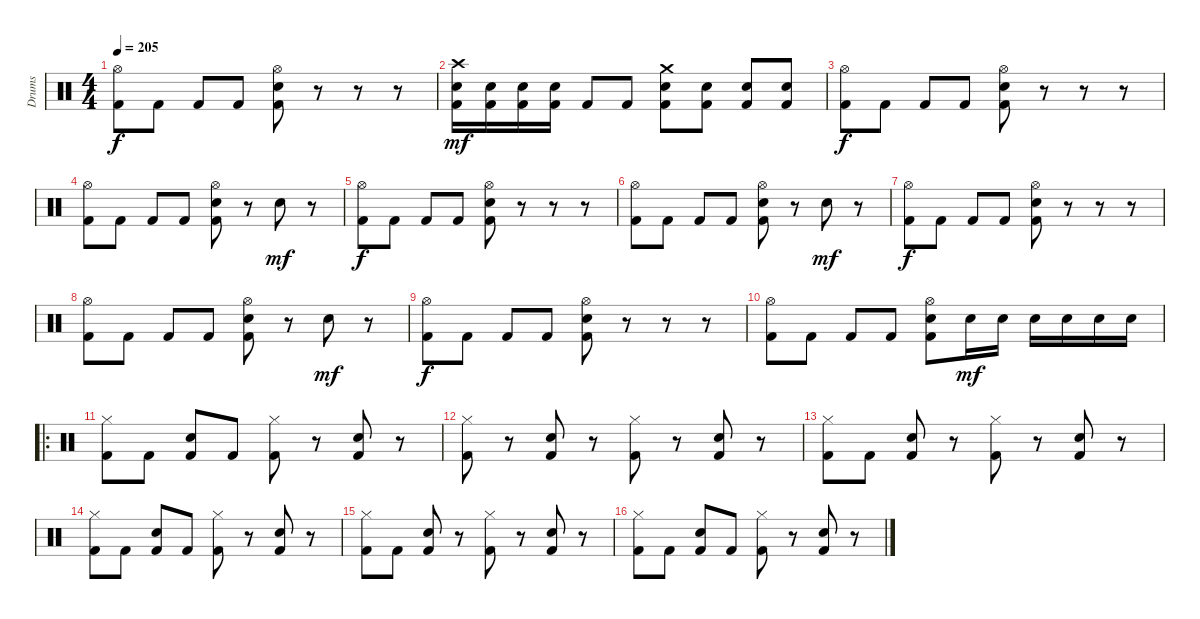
\track ("Drums" "Drums") {instrument percussion}
\staff {score}
\articulation defaults
\ts (4 4)
\tempo 205
\clef neutral
\ks c
("Hi-Hat (open)" "Kick (hit) 2").8{dy f} "Kick (hit) 2".8 "Kick (hit) 2".8 "Kick (hit) 2".8 ("Hi-Hat (open)" "Electric Snare (hit)" "Kick (hit) 2").8 r.8 r.8 r.8 |
("Crash high (hit)" "Electric Snare (hit)" "Kick (hit) 2").16{dy mf} ("Electric Snare (hit)" "Kick (hit) 2").16 ("Electric Snare (hit)" "Kick (hit) 2").16 ("Electric Snare (hit)" "Kick (hit) 2").16 "Kick (hit) 2".8 "Kick (hit) 2".8 ("Crash medium (hit)" "Electric Snare (hit)" "Kick (hit) 2").8 ("Electric Snare (hit)" "Kick (hit) 2").8 ("Electric Snare (hit)" "Kick (hit) 2").8 ("Electric Snare (hit)" "Kick (hit) 2").8 |
("Hi-Hat (open)" "Kick (hit) 2").8{dy f} "Kick (hit) 2".8 "Kick (hit) 2".8 "Kick (hit) 2".8 ("Hi-Hat (open)" "Electric Snare (hit)" "Kick (hit) 2").8 r.8 r.8 r.8 |
("Hi-Hat (open)" "Kick (hit) 2").8 "Kick (hit) 2".8 "Kick (hit) 2".8 "Kick (hit) 2".8 ("Hi-Hat (open)" "Electric Snare (hit)" "Kick (hit) 2").8 r.8 "Electric Snare (hit)".8{dy mf} r.8 |
("Hi-Hat (open)" "Kick (hit) 2").8{dy f} "Kick (hit) 2".8 "Kick (hit) 2".8 "Kick (hit) 2".8 ("Hi-Hat (open)" "Electric Snare (hit)" "Kick (hit) 2").8 r.8 r.8 r.8 |
("Hi-Hat (open)" "Kick (hit) 2").8 "Kick (hit) 2".8 "Kick (hit) 2".8 "Kick (hit) 2".8 ("Hi-Hat (open)" "Electric Snare (hit)" "Kick (hit) 2").8 r.8 "Electric Snare (hit)".8{dy mf} r.8 |
("Hi-Hat (open)" "Kick (hit) 2").8{dy f} "Kick (hit) 2".8 "Kick (hit) 2".8 "Kick (hit) 2".8 ("Hi-Hat (open)" "Electric Snare (hit)" "Kick (hit) 2").8 r.8 r.8 r.8 |
("Hi-Hat (open)" "Kick (hit) 2").8 "Kick (hit) 2".8 "Kick (hit) 2".8 "Kick (hit) 2".8 ("Hi-Hat (open)" "Electric Snare (hit)" "Kick (hit) 2").8 r.8 "Electric Snare (hit)".8{dy mf} r.8 |
("Hi-Hat (open)" "Kick (hit) 2").8{dy f} "Kick (hit) 2".8 "Kick (hit) 2".8 "Kick (hit) 2".8 ("Hi-Hat (open)" "Electric Snare (hit)" "Kick (hit) 2").8 r.8 r.8 r.8 |
("Hi-Hat (open)" "Kick (hit) 2").8 "Kick (hit) 2".8 "Kick (hit) 2".8 "Kick (hit) 2".8 ("Hi-Hat (open)" "Electric Snare (hit)" "Kick (hit) 2").8 "Electric Snare (hit)".16{dy mf} "Electric Snare (hit)".16 "Electric Snare (hit)".16 "Electric Snare (hit)".16 "Electric Snare (hit)".16 "Electric Snare (hit)".16 |
\ro
("Hi-Hat (closed)" "Kick (hit) 2").8 "Kick (hit) 2".8 ("Electric Snare (hit)" "Kick (hit) 2").8 "Kick (hit) 2".8 ("Hi-Hat (closed)" "Kick (hit) 2").8 r.8 ("Electric Snare (hit)" "Kick (hit) 2").8 r.8 |
("Hi-Hat (closed)" "Kick (hit) 2").8 r.8 ("Electric Snare (hit)" "Kick (hit) 2").8 r.8 ("Hi-Hat (closed)" "Kick (hit) 2").8 r.8 ("Electric Snare (hit)" "Kick (hit) 2").8 r.8 |
("Hi-Hat (closed)" "Kick (hit) 2").8 "Kick (hit) 2".8 ("Electric Snare (hit)" "Kick (hit) 2").8 r.8 ("Hi-Hat (closed)" "Kick (hit) 2").8 r.8 ("Electric Snare (hit)" "Kick (hit) 2").8 r.8 |
("Hi-Hat (closed)" "Kick (hit) 2").8 "Kick (hit) 2".8 ("Electric Snare (hit)" "Kick (hit) 2").8 "Kick (hit) 2".8 ("Hi-Hat (closed)" "Kick (hit) 2").8 r.8 ("Electric Snare (hit)" "Kick (hit) 2").8 r.8 |
("Hi-Hat (closed)" "Kick (hit) 2").8 "Kick (hit) 2".8 ("Electric Snare (hit)" "Kick (hit) 2").8 r.8 ("Hi-Hat (closed)" "Kick (hit) 2").8 r.8 ("Electric Snare (hit)" "Kick (hit) 2").8 r.8 |
("Hi-Hat (closed)" "Kick (hit) 2").8 "Kick (hit) 2".8 ("Electric Snare (hit)" "Kick (hit) 2").8 "Kick (hit) 2".8 ("Hi-Hat (closed)" "Kick (hit) 2").8 r.8 ("Electric Snare (hit)" "Kick (hit) 2").8 r.8
